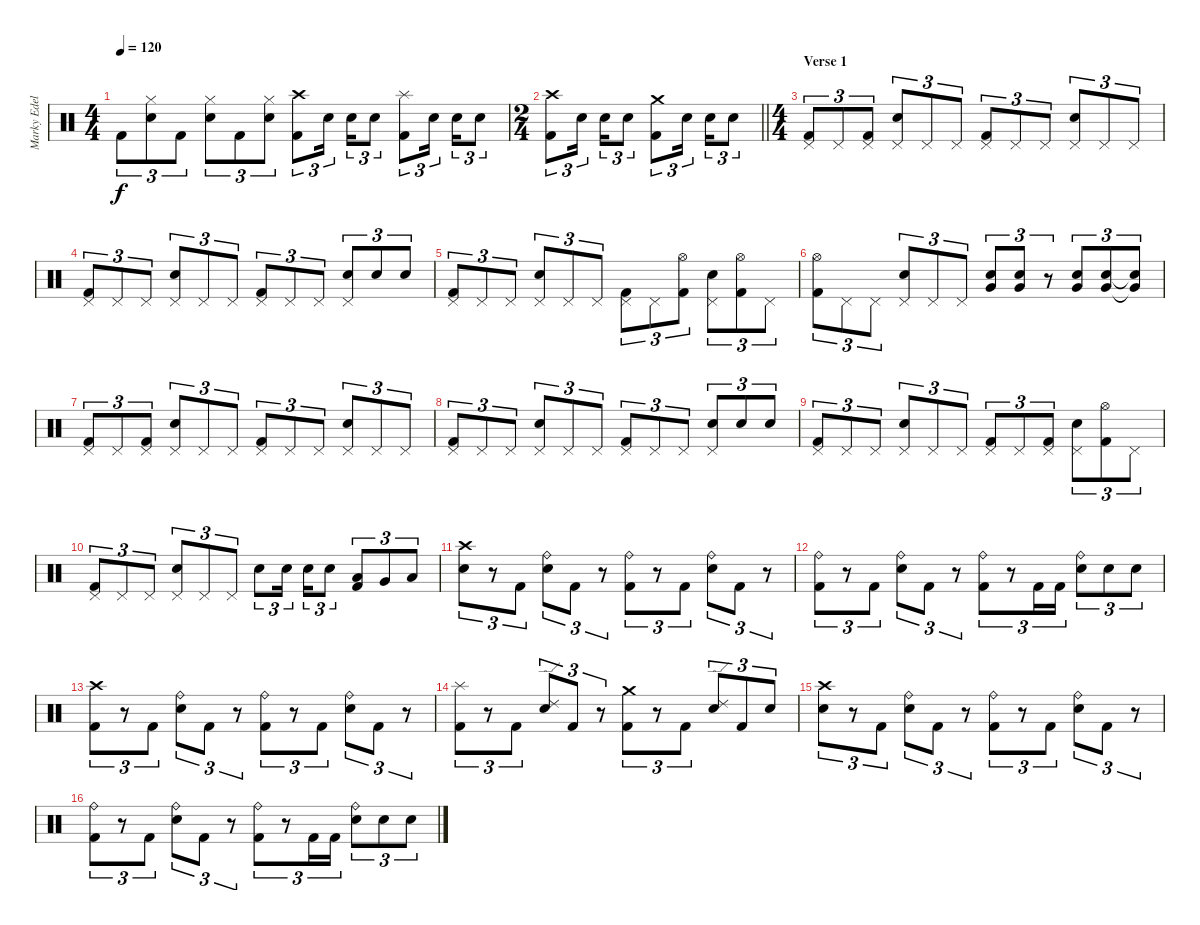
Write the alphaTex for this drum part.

\track ("Marky Edelmann" "Marky Edel") {instrument percussion}
\staff {score}
\articulation defaults
\ts (4 4)
\tempo 120
\clef neutral
\ks c "Kick (hit) 2".8{tu (3 2) dy f}
("Hi-Hat (closed)" "Snare (hit) 2").8{tu (3 2)} "Kick (hit) 2".8{tu (3 2)} ("Hi-Hat (closed)" "Snare (hit) 2").8{tu (3 2)} "Kick (hit) 2".8{tu (3 2)} ("Hi-Hat (closed)" "Snare (hit) 2").8{tu (3 2)} ("Crash high (hit)" "Kick (hit) 2").8{tu (3 2)} "Snare (hit) 2".16{tu (3 2) beam splitsecondary} "Snare (hit) 2".16{tu (3 2)} "Snare (hit) 2".8{tu (3 2)} ("Splash (hit)" "Kick (hit) 2").8{tu (3 2)} "Snare (hit) 2".16{tu (3 2) beam splitsecondary} "Snare (hit) 2".16{tu (3 2)} "Snare (hit) 2".8{tu (3 2)} |
\ts (2 4)
\barLineRight lightlight
("Crash high (hit)" "Kick (hit) 2").8{tu (3 2)} "Snare (hit) 2".16{tu (3 2) beam splitsecondary} "Snare (hit) 2".16{tu (3 2)} "Snare (hit) 2".8{tu (3 2)} ("Crash medium (hit)" "Kick (hit) 2").8{tu (3 2)} "Snare (hit) 2".16{tu (3 2) beam splitsecondary} "Snare (hit) 2".16{tu (3 2)} "Snare (hit) 2".8{tu (3 2)} |
\ts (4 4)
\section ("" "Verse 1")
("Pedal Hi-Hat (hit)" "Kick (hit) 2").8{tu (3 2)} "Pedal Hi-Hat (hit)".8{tu (3 2)} ("Pedal Hi-Hat (hit)" "Kick (hit) 2").8{tu (3 2)} ("Pedal Hi-Hat (hit)" "Snare (hit) 2").8{tu (3 2)} "Pedal Hi-Hat (hit)".8{tu (3 2)} "Pedal Hi-Hat (hit)".8{tu (3 2)} ("Pedal Hi-Hat (hit)" "Kick (hit) 2").8{tu (3 2)} "Pedal Hi-Hat (hit)".8{tu (3 2)} "Pedal Hi-Hat (hit)".8{tu (3 2)} ("Pedal Hi-Hat (hit)" "Snare (hit) 2").8{tu (3 2)} "Pedal Hi-Hat (hit)".8{tu (3 2)} "Pedal Hi-Hat (hit)".8{tu (3 2)} |
("Pedal Hi-Hat (hit)" "Kick (hit) 2").8{tu (3 2)} "Pedal Hi-Hat (hit)".8{tu (3 2)} "Pedal Hi-Hat (hit)".8{tu (3 2)} ("Pedal Hi-Hat (hit)" "Snare (hit) 2").8{tu (3 2)} "Pedal Hi-Hat (hit)".8{tu (3 2)} "Pedal Hi-Hat (hit)".8{tu (3 2)} ("Pedal Hi-Hat (hit)" "Kick (hit) 2").8{tu (3 2)} "Pedal Hi-Hat (hit)".8{tu (3 2)} "Pedal Hi-Hat (hit)".8{tu (3 2)} ("Pedal Hi-Hat (hit)" "Snare (hit) 2").8{tu (3 2)} "Snare (hit) 2".8{tu (3 2)} "Snare (hit) 2".8{tu (3 2)} |
("Pedal Hi-Hat (hit)" "Kick (hit) 2").8{tu (3 2)} "Pedal Hi-Hat (hit)".8{tu (3 2)} "Pedal Hi-Hat (hit)".8{tu (3 2)} ("Pedal Hi-Hat (hit)" "Snare (hit) 2").8{tu (3 2)} "Pedal Hi-Hat (hit)".8{tu (3 2)} "Pedal Hi-Hat (hit)".8{tu (3 2)} ("Pedal Hi-Hat (hit)" "Kick (hit) 2").8{tu (3 2)} "Pedal Hi-Hat (hit)".8{tu (3 2)} ("Hi-Hat (open)" "Kick (hit) 2").8{tu (3 2)} ("Pedal Hi-Hat (hit)" "Snare (hit) 2").8{tu (3 2)} ("Hi-Hat (open)" "Kick (hit) 2").8{tu (3 2)} "Pedal Hi-Hat (hit)".8{tu (3 2)} |
("Hi-Hat (open)" "Kick (hit) 2").8{tu (3 2)} "Pedal Hi-Hat (hit)".8{tu (3 2)} "Pedal Hi-Hat (hit)".8{tu (3 2)} ("Pedal Hi-Hat (hit)" "Snare (hit) 2").8{tu (3 2)} "Pedal Hi-Hat (hit)".8{tu (3 2)} "Pedal Hi-Hat (hit)".8{tu (3 2)} ("Very Low Tom (hit)" "Snare (hit) 2").8{tu (3 2)} ("Very Low Tom (hit)" "Snare (hit) 2").8{tu (3 2)} r.8{tu (3 2)} ("Very Low Tom (hit)" "Snare (hit) 2").8{tu (3 2)} ("Very Low Tom (hit)" "Snare (hit) 2").8{tu (3 2)} ("Very Low Tom (hit)"{t} "Snare (hit) 2"{t}).8{tu (3 2)} |
("Pedal Hi-Hat (hit)" "Kick (hit) 2").8{tu (3 2)} "Pedal Hi-Hat (hit)".8{tu (3 2)} ("Pedal Hi-Hat (hit)" "Kick (hit) 2").8{tu (3 2)} ("Pedal Hi-Hat (hit)" "Snare (hit) 2").8{tu (3 2)} "Pedal Hi-Hat (hit)".8{tu (3 2)} "Pedal Hi-Hat (hit)".8{tu (3 2)} ("Pedal Hi-Hat (hit)" "Kick (hit) 2").8{tu (3 2)} "Pedal Hi-Hat (hit)".8{tu (3 2)} "Pedal Hi-Hat (hit)".8{tu (3 2)} ("Pedal Hi-Hat (hit)" "Snare (hit) 2").8{tu (3 2)} "Pedal Hi-Hat (hit)".8{tu (3 2)} "Pedal Hi-Hat (hit)".8{tu (3 2)} |
("Pedal Hi-Hat (hit)" "Kick (hit) 2").8{tu (3 2)} "Pedal Hi-Hat (hit)".8{tu (3 2)} "Pedal Hi-Hat (hit)".8{tu (3 2)} ("Pedal Hi-Hat (hit)" "Snare (hit) 2").8{tu (3 2)} "Pedal Hi-Hat (hit)".8{tu (3 2)} "Pedal Hi-Hat (hit)".8{tu (3 2)} ("Pedal Hi-Hat (hit)" "Kick (hit) 2").8{tu (3 2)} "Pedal Hi-Hat (hit)".8{tu (3 2)} "Pedal Hi-Hat (hit)".8{tu (3 2)} ("Pedal Hi-Hat (hit)" "Snare (hit) 2").8{tu (3 2)} "Snare (hit) 2".8{tu (3 2)} "Snare (hit) 2".8{tu (3 2)} |
("Pedal Hi-Hat (hit)" "Kick (hit) 2").8{tu (3 2)} "Pedal Hi-Hat (hit)".8{tu (3 2)} "Pedal Hi-Hat (hit)".8{tu (3 2)} ("Pedal Hi-Hat (hit)" "Snare (hit) 2").8{tu (3 2)} "Pedal Hi-Hat (hit)".8{tu (3 2)} "Pedal Hi-Hat (hit)".8{tu (3 2)} ("Pedal Hi-Hat (hit)" "Kick (hit) 2").8{tu (3 2)} "Pedal Hi-Hat (hit)".8{tu (3 2)} ("Pedal Hi-Hat (hit)" "Kick (hit) 2").8{tu (3 2)} ("Pedal Hi-Hat (hit)" "Snare (hit) 2").8{tu (3 2)} ("Hi-Hat (open)" "Kick (hit) 2").8{tu (3 2)} "Pedal Hi-Hat (hit)".8{tu (3 2)} |
("Pedal Hi-Hat (hit)" "Kick (hit) 2").8{tu (3 2)} "Pedal Hi-Hat (hit)".8{tu (3 2)} "Pedal Hi-Hat (hit)".8{tu (3 2)} ("Pedal Hi-Hat (hit)" "Snare (hit) 2").8{tu (3 2)} "Pedal Hi-Hat (hit)".8{tu (3 2)} "Pedal Hi-Hat (hit)".8{tu (3 2)} "Snare (hit) 2".8{tu (3 2)} "Snare (hit) 2".16{tu (3 2) beam splitsecondary} "Snare (hit) 2".16{tu (3 2)} "Snare (hit) 2".8{tu (3 2)} ("Low Tom (hit)" "Kick (hit) 2").8{tu (3 2)} "Very Low Tom (hit)".8{tu (3 2)} "Low Floor Tom (hit)".8{tu (3 2)} |
("Crash high (hit)" "Snare (hit) 2").8{tu (3 2)} r.8{tu (3 2)} "Kick (hit) 2".8{tu (3 2)} ("Ride (bell)" "Snare (hit) 2").8{tu (3 2)} "Kick (hit) 2".8{tu (3 2)} r.8{tu (3 2)} ("Ride (bell)" "Kick (hit) 2").8{tu (3 2)} r.8{tu (3 2)} "Kick (hit) 2".8{tu (3 2)} ("Ride (bell)" "Snare (hit) 2").8{tu (3 2)} "Kick (hit) 2".8{tu (3 2)} r.8{tu (3 2)} |
("Ride (bell)" "Kick (hit) 2").8{tu (3 2)} r.8{tu (3 2)} "Kick (hit) 2".8{tu (3 2)} ("Ride (bell)" "Snare (hit) 2").8{tu (3 2)} "Kick (hit) 2".8{tu (3 2)} r.8{tu (3 2)} ("Ride (bell)" "Kick (hit) 2").8{tu (3 2)} r.8{tu (3 2)} "Kick (hit) 2".16{tu (3 2)} "Kick (hit) 2".16{tu (3 2)} ("Ride (bell)" "Snare (hit) 2").8{tu (3 2)} "Snare (hit) 2".8{tu (3 2)} "Snare (hit) 2".8{tu (3 2)} |
("Crash high (hit)" "Kick (hit) 2").8{tu (3 2)} r.8{tu (3 2)} "Kick (hit) 2".8{tu (3 2)} ("Ride (bell)" "Snare (hit) 2").8{tu (3 2)} "Kick (hit) 2".8{tu (3 2)} r.8{tu (3 2)} ("Ride (bell)" "Kick (hit) 2").8{tu (3 2)} r.8{tu (3 2)} "Kick (hit) 2".8{tu (3 2)} ("Ride (bell)" "Snare (hit) 2").8{tu (3 2)} "Kick (hit) 2".8{tu (3 2)} r.8{tu (3 2)} |
("Splash (hit)" "Kick (hit) 2").8{tu (3 2)} r.8{tu (3 2)} "Kick (hit) 2".8{tu (3 2)} ("Ride (edge) 2" "Snare (hit) 2").8{tu (3 2)} "Kick (hit) 2".8{tu (3 2)} r.8{tu (3 2)} ("Crash medium (hit)" "Kick (hit) 2").8{tu (3 2)} r.8{tu (3 2)} "Kick (hit) 2".8{tu (3 2)} ("Ride (edge) 2" "Snare (hit) 2").8{tu (3 2)} "Kick (hit) 2".8{tu (3 2)} "Snare (hit) 2".8{tu (3 2)} |
("Crash high (hit)" "Snare (hit) 2").8{tu (3 2)} r.8{tu (3 2)} "Kick (hit) 2".8{tu (3 2)} ("Ride (bell)" "Snare (hit) 2").8{tu (3 2)} "Kick (hit) 2".8{tu (3 2)} r.8{tu (3 2)} ("Ride (bell)" "Kick (hit) 2").8{tu (3 2)} r.8{tu (3 2)} "Kick (hit) 2".8{tu (3 2)} ("Ride (bell)" "Snare (hit) 2").8{tu (3 2)} "Kick (hit) 2".8{tu (3 2)} r.8{tu (3 2)} |
("Ride (bell)" "Kick (hit) 2").8{tu (3 2)} r.8{tu (3 2)} "Kick (hit) 2".8{tu (3 2)} ("Ride (bell)" "Snare (hit) 2").8{tu (3 2)} "Kick (hit) 2".8{tu (3 2)} r.8{tu (3 2)} ("Ride (bell)" "Kick (hit) 2").8{tu (3 2)} r.8{tu (3 2)} "Kick (hit) 2".16{tu (3 2)} "Kick (hit) 2".16{tu (3 2)} ("Ride (bell)" "Snare (hit) 2").8{tu (3 2)} "Snare (hit) 2".8{tu (3 2)} "Snare (hit) 2".8{tu (3 2)}
